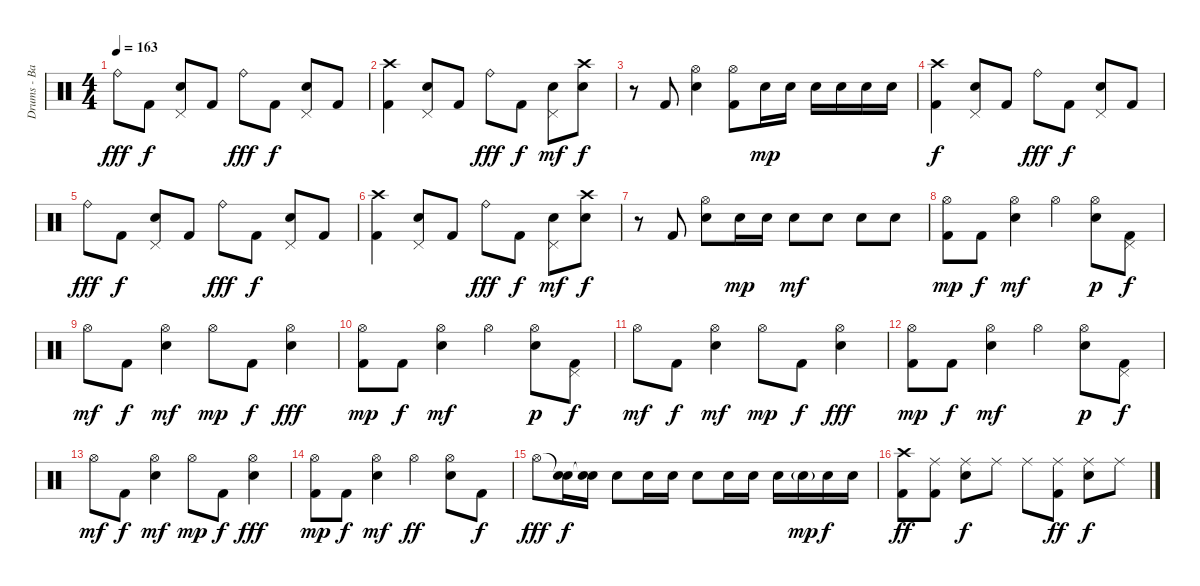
\track ("Drums - Bateria" "Drums - Ba") {instrument percussion}
\staff {score}
\articulation defaults
\ts (4 4)
\tempo 163
\clef neutral
\ks c "Ride (bell)".8{dy fff} "Kick (hit) 2".8{dy f}
("Pedal Hi-Hat (hit)" "Electric Snare (hit)").8 "Kick (hit) 2".8 "Ride (bell)".8{dy fff} "Kick (hit) 2".8{dy f} ("Pedal Hi-Hat (hit)" "Electric Snare (hit)").8 "Kick (hit) 2".8 |
("Crash high (hit)" "Kick (hit) 2").4 ("Pedal Hi-Hat (hit)" "Electric Snare (hit)").8 "Kick (hit) 2".8 "Ride (bell)".8{dy fff} "Kick (hit) 2".8{dy f} ("Pedal Hi-Hat (hit)" "Electric Snare (hit)").8{dy mf} ("Crash high (hit)" "Electric Snare (hit)").8{dy f} |
r.8 "Kick (hit) 2".8 ("Hi-Hat (open)" "Electric Snare (hit)").4 ("Hi-Hat (open)" "Kick (hit) 2").8 "Electric Snare (hit)".16{dy mp} "Electric Snare (hit)".16 "Electric Snare (hit)".16 "Electric Snare (hit)".16 "Electric Snare (hit)".16 "Electric Snare (hit)".16 |
("Crash high (hit)" "Kick (hit) 2").4{dy f} ("Pedal Hi-Hat (hit)" "Electric Snare (hit)").8 "Kick (hit) 2".8 "Ride (bell)".8{dy fff} "Kick (hit) 2".8{dy f} ("Pedal Hi-Hat (hit)" "Electric Snare (hit)").8 "Kick (hit) 2".8 |
"Ride (bell)".8{dy fff} "Kick (hit) 2".8{dy f} ("Pedal Hi-Hat (hit)" "Electric Snare (hit)").8 "Kick (hit) 2".8 "Ride (bell)".8{dy fff} "Kick (hit) 2".8{dy f} ("Pedal Hi-Hat (hit)" "Electric Snare (hit)").8 "Kick (hit) 2".8 |
("Crash high (hit)" "Kick (hit) 2").4 ("Pedal Hi-Hat (hit)" "Electric Snare (hit)").8 "Kick (hit) 2".8 "Ride (bell)".8{dy fff} "Kick (hit) 2".8{dy f} ("Pedal Hi-Hat (hit)" "Electric Snare (hit)").8{dy mf} ("Crash high (hit)" "Electric Snare (hit)").8{dy f} |
r.8 "Kick (hit) 2".8 ("Hi-Hat (open)" "Electric Snare (hit)").8 "Electric Snare (hit)".16{dy mp} "Electric Snare (hit)".16 "Electric Snare (hit)".8{dy mf} "Electric Snare (hit)".8 "Electric Snare (hit)".8 "Electric Snare (hit)".8 |
("Hi-Hat (open)" "Kick (hit) 2").8{dy mp} "Kick (hit) 2".8{dy f} ("Hi-Hat (open)" "Electric Snare (hit)").4{dy mf} "Hi-Hat (open)".4 ("Hi-Hat (open)" "Electric Snare (hit)").8{dy p} ("Pedal Hi-Hat (hit)" "Kick (hit) 2").8{dy f} |
"Hi-Hat (open)".8{dy mf} "Kick (hit) 2".8{dy f} ("Hi-Hat (open)" "Electric Snare (hit)").4{dy mf} "Hi-Hat (open)".8{dy mp} "Kick (hit) 2".8{dy f} ("Hi-Hat (open)" "Electric Snare (hit)").4{dy fff} |
("Hi-Hat (open)" "Kick (hit) 2").8{dy mp} "Kick (hit) 2".8{dy f} ("Hi-Hat (open)" "Electric Snare (hit)").4{dy mf} "Hi-Hat (open)".4 ("Hi-Hat (open)" "Electric Snare (hit)").8{dy p} ("Pedal Hi-Hat (hit)" "Kick (hit) 2").8{dy f} |
"Hi-Hat (open)".8{dy mf} "Kick (hit) 2".8{dy f} ("Hi-Hat (open)" "Electric Snare (hit)").4{dy mf} "Hi-Hat (open)".8{dy mp} "Kick (hit) 2".8{dy f} ("Hi-Hat (open)" "Electric Snare (hit)").4{dy fff} |
("Hi-Hat (open)" "Kick (hit) 2").8{dy mp} "Kick (hit) 2".8{dy f} ("Hi-Hat (open)" "Electric Snare (hit)").4{dy mf} "Hi-Hat (open)".4 ("Hi-Hat (open)" "Electric Snare (hit)").8{dy p} ("Pedal Hi-Hat (hit)" "Kick (hit) 2").8{dy f} |
"Hi-Hat (open)".8{dy mf} "Kick (hit) 2".8{dy f} ("Hi-Hat (open)" "Electric Snare (hit)").4{dy mf} "Hi-Hat (open)".8{dy mp} "Kick (hit) 2".8{dy f} ("Hi-Hat (open)" "Electric Snare (hit)").4{dy fff} |
("Hi-Hat (open)" "Kick (hit) 2").8{dy mp} "Kick (hit) 2".8{dy f} ("Hi-Hat (open)" "Electric Snare (hit)").4{dy mf} "Hi-Hat (open)".4{dy ff} ("Hi-Hat (open)" "Electric Snare (hit)").8 "Kick (hit) 2".8{dy f} |
"Hi-Hat (open)".8{dy fff} ("Snare (hit)"{t} "Electric Snare (hit)").16{dy f} ("Snare (hit)"{t} "Electric Snare (hit)").16 "Electric Snare (hit)".8 "Electric Snare (hit)".16 "Electric Snare (hit)".16 "Electric Snare (hit)".8 "Electric Snare (hit)".16 "Electric Snare (hit)".16 "Electric Snare (hit)".16 "Electric Snare (hit)"{g}.16{dy mp} "Electric Snare (hit)".16{dy f} "Electric Snare (hit)".16 |
("Crash high (hit)" "Kick (hit) 2").8{dy ff} ("Ride (middle)" "Kick (hit) 2").8 ("Ride (middle)" "Electric Snare (hit)").8{dy f} "Ride (middle)".8 "Ride (middle)".8 ("Ride (middle)" "Kick (hit) 2").8{dy ff} ("Ride (middle)" "Electric Snare (hit)").8{dy f} "Ride (middle)".8
